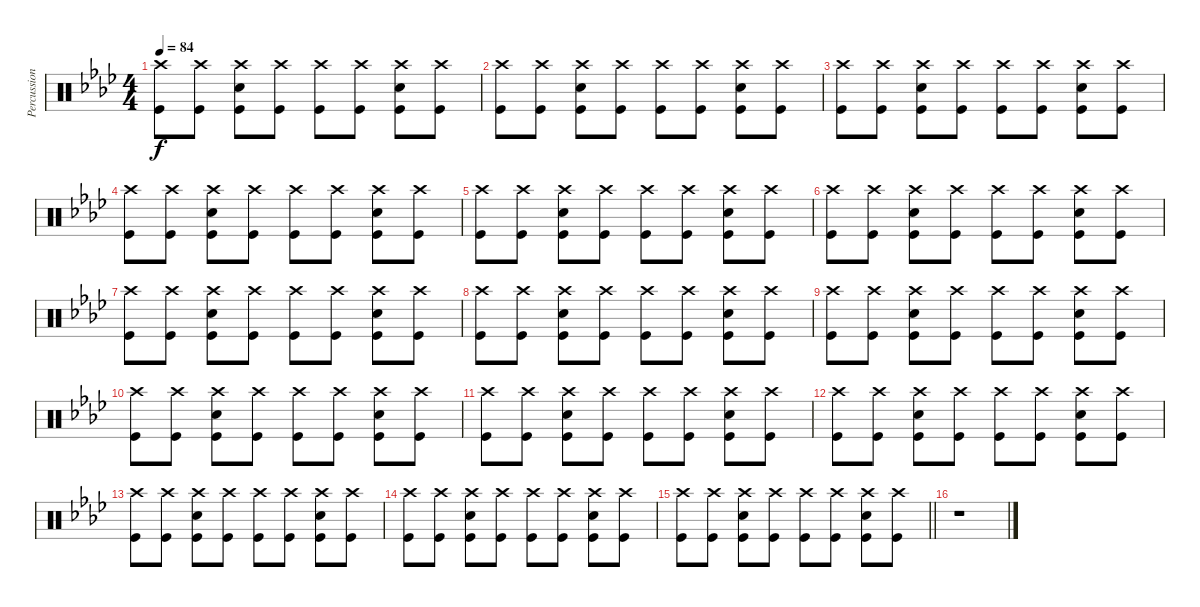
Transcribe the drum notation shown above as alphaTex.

\track ("Percussion" "Percussion") {instrument percussion}
\staff {score}
\articulation defaults
\ts (4 4)
\tempo 84
\clef neutral
\ks ab
("Crash high (hit)" "Kick (hit)").8{dy f} ("Kick (hit)" "Crash high (hit)").8 ("Snare (hit) 2" "Kick (hit)" "Crash high (hit)").8 ("Kick (hit)" "Crash high (hit)").8 ("Crash high (hit)" "Kick (hit)").8 ("Kick (hit)" "Crash high (hit)").8 ("Kick (hit)" "Snare (hit) 2" "Crash high (hit)").8 ("Crash high (hit)" "Kick (hit)").8 |
("Crash high (hit)" "Kick (hit)").8 ("Kick (hit)" "Crash high (hit)").8 ("Snare (hit) 2" "Kick (hit)" "Crash high (hit)").8 ("Kick (hit)" "Crash high (hit)").8 ("Crash high (hit)" "Kick (hit)").8 ("Kick (hit)" "Crash high (hit)").8 ("Kick (hit)" "Snare (hit) 2" "Crash high (hit)").8 ("Crash high (hit)" "Kick (hit)").8 |
("Crash high (hit)" "Kick (hit)").8 ("Kick (hit)" "Crash high (hit)").8 ("Snare (hit) 2" "Kick (hit)" "Crash high (hit)").8 ("Kick (hit)" "Crash high (hit)").8 ("Crash high (hit)" "Kick (hit)").8 ("Kick (hit)" "Crash high (hit)").8 ("Kick (hit)" "Snare (hit) 2" "Crash high (hit)").8 ("Crash high (hit)" "Kick (hit)").8 |
("Crash high (hit)" "Kick (hit)").8 ("Kick (hit)" "Crash high (hit)").8 ("Snare (hit) 2" "Kick (hit)" "Crash high (hit)").8 ("Kick (hit)" "Crash high (hit)").8 ("Crash high (hit)" "Kick (hit)").8 ("Kick (hit)" "Crash high (hit)").8 ("Kick (hit)" "Snare (hit) 2" "Crash high (hit)").8 ("Crash high (hit)" "Kick (hit)").8 |
("Crash high (hit)" "Kick (hit)").8 ("Kick (hit)" "Crash high (hit)").8 ("Snare (hit) 2" "Kick (hit)" "Crash high (hit)").8 ("Kick (hit)" "Crash high (hit)").8 ("Crash high (hit)" "Kick (hit)").8 ("Kick (hit)" "Crash high (hit)").8 ("Kick (hit)" "Snare (hit) 2" "Crash high (hit)").8 ("Crash high (hit)" "Kick (hit)").8 |
("Crash high (hit)" "Kick (hit)").8 ("Kick (hit)" "Crash high (hit)").8 ("Snare (hit) 2" "Kick (hit)" "Crash high (hit)").8 ("Kick (hit)" "Crash high (hit)").8 ("Crash high (hit)" "Kick (hit)").8 ("Kick (hit)" "Crash high (hit)").8 ("Kick (hit)" "Snare (hit) 2" "Crash high (hit)").8 ("Crash high (hit)" "Kick (hit)").8 |
("Crash high (hit)" "Kick (hit)").8 ("Kick (hit)" "Crash high (hit)").8 ("Snare (hit) 2" "Kick (hit)" "Crash high (hit)").8 ("Kick (hit)" "Crash high (hit)").8 ("Crash high (hit)" "Kick (hit)").8 ("Kick (hit)" "Crash high (hit)").8 ("Kick (hit)" "Snare (hit) 2" "Crash high (hit)").8 ("Crash high (hit)" "Kick (hit)").8 |
("Crash high (hit)" "Kick (hit)").8 ("Kick (hit)" "Crash high (hit)").8 ("Snare (hit) 2" "Kick (hit)" "Crash high (hit)").8 ("Kick (hit)" "Crash high (hit)").8 ("Crash high (hit)" "Kick (hit)").8 ("Kick (hit)" "Crash high (hit)").8 ("Kick (hit)" "Snare (hit) 2" "Crash high (hit)").8 ("Crash high (hit)" "Kick (hit)").8 |
("Crash high (hit)" "Kick (hit)").8 ("Kick (hit)" "Crash high (hit)").8 ("Snare (hit) 2" "Kick (hit)" "Crash high (hit)").8 ("Kick (hit)" "Crash high (hit)").8 ("Crash high (hit)" "Kick (hit)").8 ("Kick (hit)" "Crash high (hit)").8 ("Kick (hit)" "Snare (hit) 2" "Crash high (hit)").8 ("Crash high (hit)" "Kick (hit)").8 |
("Crash high (hit)" "Kick (hit)").8 ("Kick (hit)" "Crash high (hit)").8 ("Snare (hit) 2" "Kick (hit)" "Crash high (hit)").8 ("Kick (hit)" "Crash high (hit)").8 ("Crash high (hit)" "Kick (hit)").8 ("Kick (hit)" "Crash high (hit)").8 ("Kick (hit)" "Snare (hit) 2" "Crash high (hit)").8 ("Crash high (hit)" "Kick (hit)").8 |
("Crash high (hit)" "Kick (hit)").8 ("Kick (hit)" "Crash high (hit)").8 ("Snare (hit) 2" "Kick (hit)" "Crash high (hit)").8 ("Kick (hit)" "Crash high (hit)").8 ("Crash high (hit)" "Kick (hit)").8 ("Kick (hit)" "Crash high (hit)").8 ("Kick (hit)" "Snare (hit) 2" "Crash high (hit)").8 ("Crash high (hit)" "Kick (hit)").8 |
("Crash high (hit)" "Kick (hit)").8 ("Kick (hit)" "Crash high (hit)").8 ("Snare (hit) 2" "Kick (hit)" "Crash high (hit)").8 ("Kick (hit)" "Crash high (hit)").8 ("Crash high (hit)" "Kick (hit)").8 ("Kick (hit)" "Crash high (hit)").8 ("Kick (hit)" "Snare (hit) 2" "Crash high (hit)").8 ("Crash high (hit)" "Kick (hit)").8 |
("Crash high (hit)" "Kick (hit)").8 ("Kick (hit)" "Crash high (hit)").8 ("Snare (hit) 2" "Kick (hit)" "Crash high (hit)").8 ("Kick (hit)" "Crash high (hit)").8 ("Crash high (hit)" "Kick (hit)").8 ("Kick (hit)" "Crash high (hit)").8 ("Kick (hit)" "Snare (hit) 2" "Crash high (hit)").8 ("Crash high (hit)" "Kick (hit)").8 |
("Crash high (hit)" "Kick (hit)").8 ("Kick (hit)" "Crash high (hit)").8 ("Snare (hit) 2" "Kick (hit)" "Crash high (hit)").8 ("Kick (hit)" "Crash high (hit)").8 ("Crash high (hit)" "Kick (hit)").8 ("Kick (hit)" "Crash high (hit)").8 ("Kick (hit)" "Snare (hit) 2" "Crash high (hit)").8 ("Crash high (hit)" "Kick (hit)").8 |
\barLineRight lightlight
("Crash high (hit)" "Kick (hit)").8 ("Kick (hit)" "Crash high (hit)").8 ("Snare (hit) 2" "Kick (hit)" "Crash high (hit)").8 ("Kick (hit)" "Crash high (hit)").8 ("Crash high (hit)" "Kick (hit)").8 ("Kick (hit)" "Crash high (hit)").8 ("Kick (hit)" "Snare (hit) 2" "Crash high (hit)").8 ("Crash high (hit)" "Kick (hit)").8 |
r.1
